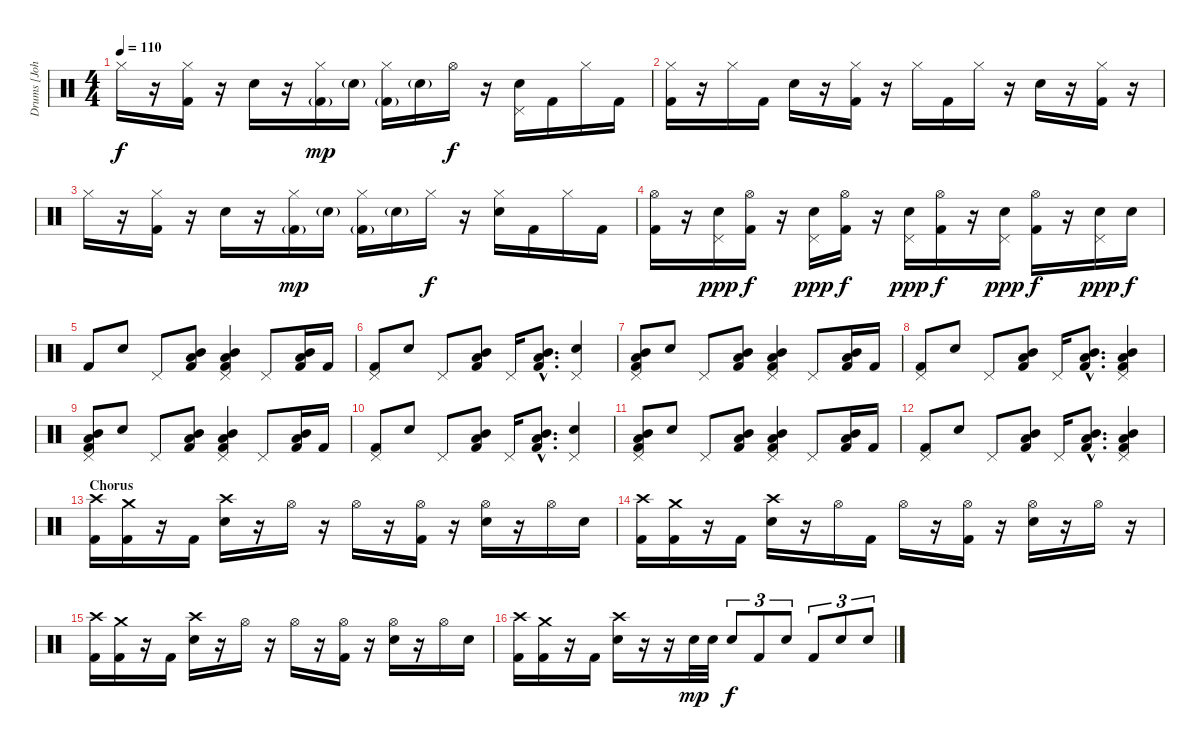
\track ("Drums [John Otto]" "Drums [Joh") {instrument percussion}
\staff {score}
\articulation defaults
\ts (4 4)
\tempo 110
\clef neutral
\ks c "Hi-Hat (closed)".16{dy f}
r.16 ("Hi-Hat (closed)" "Kick (hit) 2").16 r.16 "Electric Snare (hit)".16 r.16 ("Hi-Hat (closed)" "Kick (hit) 2"{g}).16{dy mp} "Electric Snare (hit)"{g}.16 ("Hi-Hat (closed)" "Kick (hit) 2"{g}).16 "Electric Snare (hit)"{g}.16 "Hi-Hat (open)".16{dy f} r.16 ("Pedal Hi-Hat (hit)" "Electric Snare (hit)").16 "Kick (hit) 2".16 "Hi-Hat (closed)".16 "Kick (hit) 2".16 |
("Hi-Hat (closed)" "Kick (hit) 2").16 r.16 "Hi-Hat (closed)".16 "Kick (hit) 2".16 "Electric Snare (hit)".16 r.16 ("Hi-Hat (closed)" "Kick (hit) 2").16 r.16 "Hi-Hat (closed)".16 "Kick (hit) 2".16 "Hi-Hat (closed)".16 r.16 "Electric Snare (hit)".16 r.16 ("Hi-Hat (closed)" "Kick (hit) 2").16 r.16 |
"Hi-Hat (closed)".16 r.16 ("Hi-Hat (closed)" "Kick (hit) 2").16 r.16 "Electric Snare (hit)".16 r.16 ("Hi-Hat (closed)" "Kick (hit) 2"{g}).16{dy mp} "Electric Snare (hit)"{g}.16 ("Hi-Hat (closed)" "Kick (hit) 2"{g}).16 "Electric Snare (hit)"{g}.16 "Hi-Hat (closed)".16{dy f} r.16 ("Hi-Hat (closed)" "Electric Snare (hit)").16 "Kick (hit) 2".16 "Hi-Hat (closed)".16 "Kick (hit) 2".16 |
("Hi-Hat (open)" "Kick (hit) 2").16 r.16 ("Pedal Hi-Hat (hit)" "Electric Snare (hit)").16{dy ppp} ("Hi-Hat (open)" "Kick (hit) 2").16{dy f} r.16 ("Pedal Hi-Hat (hit)" "Electric Snare (hit)").16{dy ppp} ("Hi-Hat (open)" "Kick (hit) 2").16{dy f} r.16 ("Pedal Hi-Hat (hit)" "Electric Snare (hit)").16{dy ppp} ("Hi-Hat (open)" "Kick (hit) 2").16{dy f} r.16 ("Pedal Hi-Hat (hit)" "Electric Snare (hit)").16{dy ppp} ("Hi-Hat (open)" "Kick (hit) 2").16{dy f} r.16 ("Pedal Hi-Hat (hit)" "Electric Snare (hit)").16{dy ppp} "Electric Snare (hit)".16{dy f} |
"Kick (hit) 2".8 "Electric Snare (hit)".8 "Pedal Hi-Hat (hit)".8 ("Low Tom (hit)" "Mid Tom (hit)" "Kick (hit) 2").8 ("Pedal Hi-Hat (hit)" "Low Tom (hit)" "Mid Tom (hit)" "Kick (hit) 2").4 "Pedal Hi-Hat (hit)".8 ("Low Tom (hit)" "Mid Tom (hit)" "Kick (hit) 2").16 "Kick (hit) 2".16 |
("Pedal Hi-Hat (hit)" "Kick (hit) 2").8 "Electric Snare (hit)".8 "Pedal Hi-Hat (hit)".8 ("Low Tom (hit)" "Mid Tom (hit)" "Kick (hit) 2").8 "Pedal Hi-Hat (hit)".16 ("Low Tom (hit)"{hac} "Mid Tom (hit)"{hac} "Kick (hit) 2"{hac}).8{d} ("Pedal Hi-Hat (hit)" "Electric Snare (hit)").4 |
("Pedal Hi-Hat (hit)" "Low Tom (hit)" "Mid Tom (hit)" "Kick (hit) 2").8 "Electric Snare (hit)".8 "Pedal Hi-Hat (hit)".8 ("Low Tom (hit)" "Mid Tom (hit)" "Kick (hit) 2").8 ("Pedal Hi-Hat (hit)" "Low Tom (hit)" "Mid Tom (hit)" "Kick (hit) 2").4 "Pedal Hi-Hat (hit)".8 ("Low Tom (hit)" "Mid Tom (hit)" "Kick (hit) 2").16 "Kick (hit) 2".16 |
("Pedal Hi-Hat (hit)" "Kick (hit) 2").8 "Electric Snare (hit)".8 "Pedal Hi-Hat (hit)".8 ("Low Tom (hit)" "Mid Tom (hit)" "Kick (hit) 2").8 "Pedal Hi-Hat (hit)".16 ("Low Tom (hit)"{hac} "Mid Tom (hit)"{hac} "Kick (hit) 2"{hac}).8{d} ("Pedal Hi-Hat (hit)" "Low Tom (hit)" "Mid Tom (hit)" "Kick (hit) 2").4 |
("Pedal Hi-Hat (hit)" "Low Tom (hit)" "Mid Tom (hit)" "Kick (hit) 2").8 "Electric Snare (hit)".8 "Pedal Hi-Hat (hit)".8 ("Low Tom (hit)" "Mid Tom (hit)" "Kick (hit) 2").8 ("Pedal Hi-Hat (hit)" "Low Tom (hit)" "Mid Tom (hit)" "Kick (hit) 2").4 "Pedal Hi-Hat (hit)".8 ("Low Tom (hit)" "Mid Tom (hit)" "Kick (hit) 2").16 "Kick (hit) 2".16 |
("Pedal Hi-Hat (hit)" "Kick (hit) 2").8 "Electric Snare (hit)".8 "Pedal Hi-Hat (hit)".8 ("Low Tom (hit)" "Mid Tom (hit)" "Kick (hit) 2").8 "Pedal Hi-Hat (hit)".16 ("Low Tom (hit)"{hac} "Mid Tom (hit)"{hac} "Kick (hit) 2"{hac}).8{d} ("Pedal Hi-Hat (hit)" "Electric Snare (hit)").4 |
("Pedal Hi-Hat (hit)" "Low Tom (hit)" "Mid Tom (hit)" "Kick (hit) 2").8 "Electric Snare (hit)".8 "Pedal Hi-Hat (hit)".8 ("Low Tom (hit)" "Mid Tom (hit)" "Kick (hit) 2").8 ("Pedal Hi-Hat (hit)" "Low Tom (hit)" "Mid Tom (hit)" "Kick (hit) 2").4 "Pedal Hi-Hat (hit)".8 ("Low Tom (hit)" "Mid Tom (hit)" "Kick (hit) 2").16 "Kick (hit) 2".16 |
("Pedal Hi-Hat (hit)" "Kick (hit) 2").8 "Electric Snare (hit)".8 "Pedal Hi-Hat (hit)".8 ("Low Tom (hit)" "Mid Tom (hit)" "Kick (hit) 2").8 "Pedal Hi-Hat (hit)".16 ("Low Tom (hit)"{hac} "Mid Tom (hit)"{hac} "Kick (hit) 2"{hac}).8{d} ("Pedal Hi-Hat (hit)" "Low Tom (hit)" "Mid Tom (hit)" "Kick (hit) 2").4 |
\section ("" "Chorus")
("Crash high (hit)" "Kick (hit) 2").16 ("Crash medium (hit)" "Kick (hit) 2").16 r.16 "Kick (hit) 2".16 ("Crash high (hit)" "Electric Snare (hit)").16 r.16 "Hi-Hat (open)".16 r.16 "Hi-Hat (open)".16 r.16 ("Hi-Hat (open)" "Kick (hit) 2").16 r.16 ("Hi-Hat (open)" "Electric Snare (hit)").16 r.16 "Hi-Hat (open)".16 "Electric Snare (hit)".16 |
("Crash high (hit)" "Kick (hit) 2").16 ("Crash medium (hit)" "Kick (hit) 2").16 r.16 "Kick (hit) 2".16 ("Crash high (hit)" "Electric Snare (hit)").16 r.16 "Hi-Hat (open)".16 "Kick (hit) 2".16 "Hi-Hat (open)".16 r.16 ("Hi-Hat (open)" "Kick (hit) 2").16 r.16 ("Hi-Hat (open)" "Electric Snare (hit)").16 r.16 "Hi-Hat (open)".16 r.16 |
("Crash high (hit)" "Kick (hit) 2").16 ("Crash medium (hit)" "Kick (hit) 2").16 r.16 "Kick (hit) 2".16 ("Crash high (hit)" "Electric Snare (hit)").16 r.16 "Hi-Hat (open)".16 r.16 "Hi-Hat (open)".16 r.16 ("Hi-Hat (open)" "Kick (hit) 2").16 r.16 ("Hi-Hat (open)" "Electric Snare (hit)").16 r.16 "Hi-Hat (open)".16 "Electric Snare (hit)".16 |
("Crash high (hit)" "Kick (hit) 2").16 ("Crash medium (hit)" "Kick (hit) 2").16 r.16 "Kick (hit) 2".16 ("Crash high (hit)" "Electric Snare (hit)").16 r.16 r.16 "Electric Snare (hit)".32{dy mp} "Electric Snare (hit)".32 "Electric Snare (hit)".8{tu (3 2) dy f} "Kick (hit) 2".8{tu (3 2)} "Electric Snare (hit)".8{tu (3 2)} "Kick (hit) 2".8{tu (3 2)} "Electric Snare (hit)".8{tu (3 2)} "Electric Snare (hit)".8{tu (3 2)}
